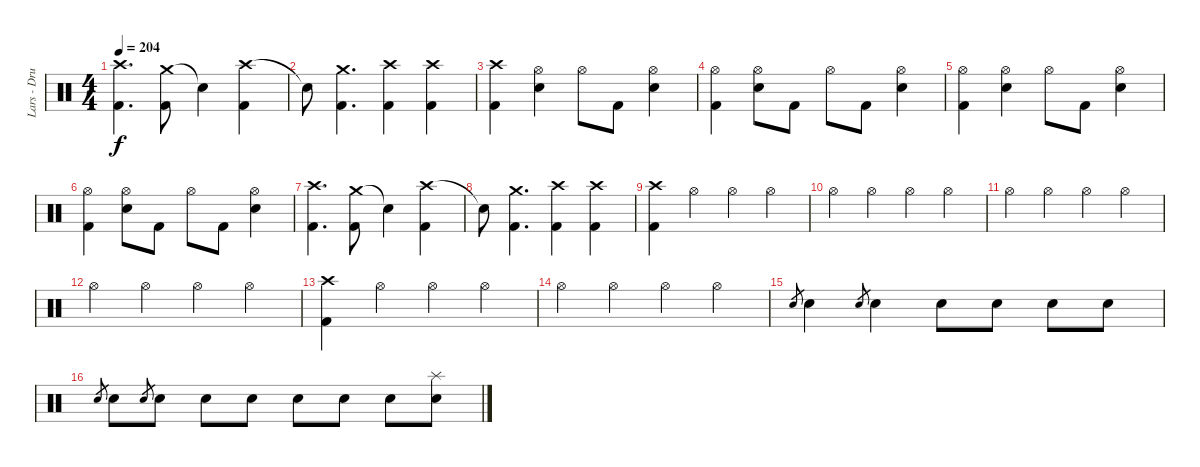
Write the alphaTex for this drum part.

\track ("Lars - Drums" "Lars - Dru") {instrument percussion}
\staff {score}
\articulation defaults
\ts (4 4)
\tempo 204
\clef neutral
\ks c
("Crash high (hit)" "Kick (hit) 2").4{d dy f} ("Crash medium (hit)" "Kick (hit) 2").8 "Snare (hit)"{t}.4 ("Crash high (hit)" "Kick (hit) 2").4 |
"Snare (hit)"{t}.8 ("Crash medium (hit)" "Kick (hit) 2").4{d} ("Crash high (hit)" "Kick (hit) 2").4 ("Crash high (hit)" "Kick (hit) 2").4 |
("Crash high (hit)" "Kick (hit) 2").4 ("Hi-Hat (open)" "Electric Snare (hit)").4 "Hi-Hat (open)".8 "Kick (hit) 2".8 ("Hi-Hat (open)" "Electric Snare (hit)").4 |
("Hi-Hat (open)" "Kick (hit) 2").4 ("Hi-Hat (open)" "Electric Snare (hit)").8 "Kick (hit) 2".8 "Hi-Hat (open)".8 "Kick (hit) 2".8 ("Hi-Hat (open)" "Electric Snare (hit)").4 |
("Hi-Hat (open)" "Kick (hit) 2").4 ("Hi-Hat (open)" "Electric Snare (hit)").4 "Hi-Hat (open)".8 "Kick (hit) 2".8 ("Hi-Hat (open)" "Electric Snare (hit)").4 |
("Hi-Hat (open)" "Kick (hit) 2").4 ("Hi-Hat (open)" "Electric Snare (hit)").8 "Kick (hit) 2".8 "Hi-Hat (open)".8 "Kick (hit) 2".8 ("Hi-Hat (open)" "Electric Snare (hit)").4 |
("Crash high (hit)" "Kick (hit) 2").4{d} ("Crash medium (hit)" "Kick (hit) 2").8 "Snare (hit)"{t}.4 ("Crash high (hit)" "Kick (hit) 2").4 |
"Snare (hit)"{t}.8 ("Crash medium (hit)" "Kick (hit) 2").4{d} ("Crash high (hit)" "Kick (hit) 2").4 ("Crash high (hit)" "Kick (hit) 2").4 |
("Crash high (hit)" "Kick (hit) 2").4 "Hi-Hat (open)".4 "Hi-Hat (open)".4 "Hi-Hat (open)".4 |
"Hi-Hat (open)".4 "Hi-Hat (open)".4 "Hi-Hat (open)".4 "Hi-Hat (open)".4 |
"Hi-Hat (open)".4 "Hi-Hat (open)".4 "Hi-Hat (open)".4 "Hi-Hat (open)".4 |
"Hi-Hat (open)".4 "Hi-Hat (open)".4 "Hi-Hat (open)".4 "Hi-Hat (open)".4 |
("Crash high (hit)" "Kick (hit) 2").4 "Hi-Hat (open)".4 "Hi-Hat (open)".4 "Hi-Hat (open)".4 |
"Hi-Hat (open)".4 "Hi-Hat (open)".4 "Hi-Hat (open)".4 "Hi-Hat (open)".4 |
"Electric Snare (hit)"{sl}.8{gr} "Electric Snare (hit)".4 "Electric Snare (hit)"{sl}.8{gr} "Electric Snare (hit)".4 "Electric Snare (hit)".8 "Electric Snare (hit)".8 "Electric Snare (hit)".8 "Electric Snare (hit)".8 |
"Electric Snare (hit)"{sl}.8{gr} "Electric Snare (hit)".8 "Electric Snare (hit)"{sl}.8{gr} "Electric Snare (hit)".8 "Electric Snare (hit)".8 "Electric Snare (hit)".8 "Electric Snare (hit)".8 "Electric Snare (hit)".8 "Electric Snare (hit)".8 ("Splash (hit)" "Electric Snare (hit)").8
